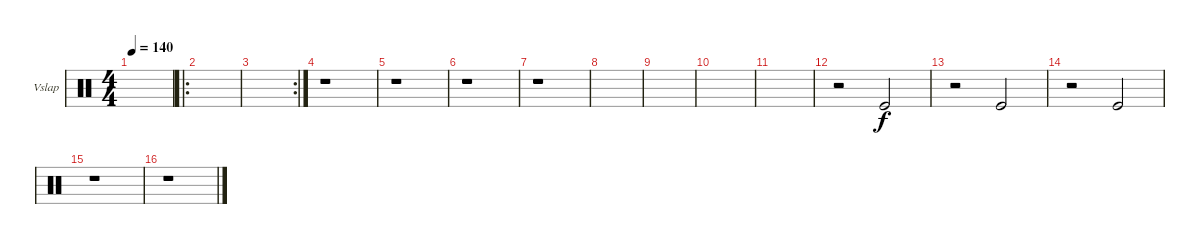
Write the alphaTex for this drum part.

\defaultSystemsLayout 4
\bracketExtendMode groupsimilarinstruments
\firstSystemTrackNameOrientation horizontal
\otherSystemsTrackNameOrientation horizontal
\track ("Vibraslap" "Vslap") {instrument percussion}
\staff {score}
\articulation defaults
\ts (4 4)
\tempo 140
\clef neutral
\scale
0.349481
\ks c
|
\ro
\scale
0.235294 |
\rc 2
\scale
0.214533 |
\scale
0.200692 r.1 |
\scale
0.252174 r.1 |
\scale
0.252174 r.1 |
\scale
0.252174 r.1 |
\scale
0.243478 |
\scale
0.215385 |
\scale
0.215385 |
\scale
0.215385 |
\scale
0.353846 r.2 "Kick (hit)".2 |
\scale
0.306667 r.2 "Kick (hit)".2 |
\scale
0.306667 r.2 "Kick (hit)".2 |
\scale
0.193333 r.1 |
\scale
0.193333 r.1
